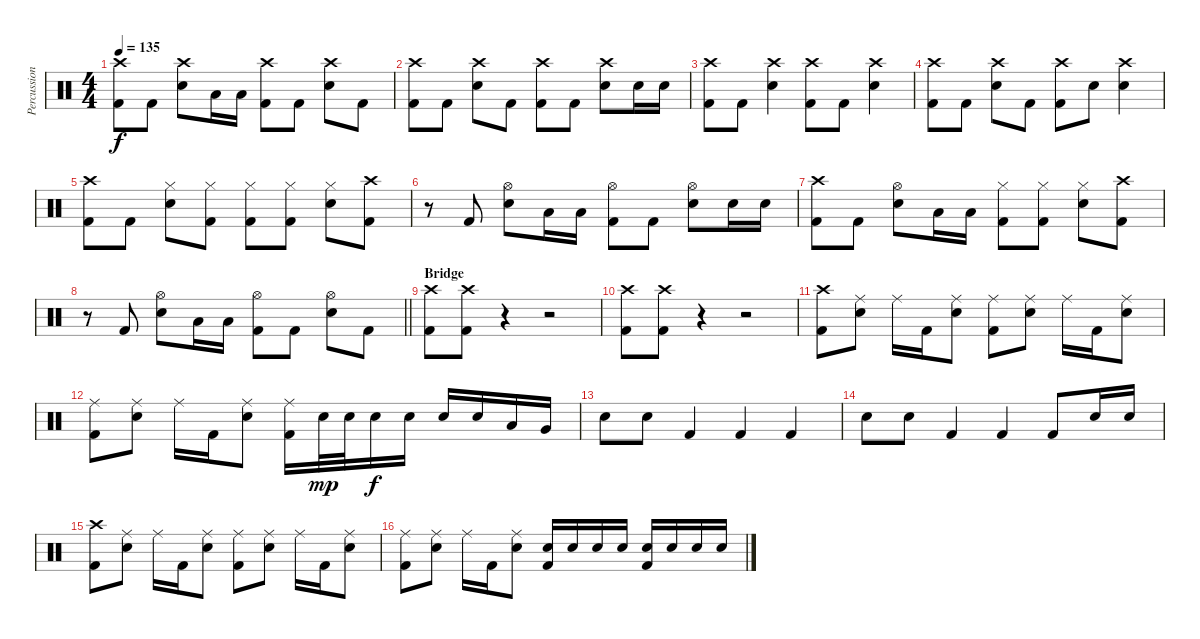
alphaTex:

\track ("Percussion" "Percussion") {instrument percussion}
\staff {score}
\articulation defaults
\ts (4 4)
\tempo 135
\clef neutral
\ks c
("Kick (hit) 2" "Crash high (hit)").8{dy f} "Kick (hit) 2".8 ("Snare (hit) 2" "Crash high (hit)").8 "Low Floor Tom (hit)".16 "Low Floor Tom (hit)".16 ("Kick (hit) 2" "Crash high (hit)").8 "Kick (hit) 2".8 ("Snare (hit) 2" "Crash high (hit)").8 "Kick (hit) 2".8 |
("Kick (hit) 2" "Crash high (hit)").8 "Kick (hit) 2".8 ("Snare (hit) 2" "Crash high (hit)").8 "Kick (hit) 2".8 ("Kick (hit) 2" "Crash high (hit)").8 "Kick (hit) 2".8 ("Snare (hit) 2" "Crash high (hit)").8 "Snare (hit) 2".16 "Snare (hit) 2".16 |
("Kick (hit) 2" "Crash high (hit)").8 "Kick (hit) 2".8 ("Snare (hit) 2" "Crash high (hit)").4 ("Kick (hit) 2" "Crash high (hit)").8 "Kick (hit) 2".8 ("Snare (hit) 2" "Crash high (hit)").4 |
("Kick (hit) 2" "Crash high (hit)").8 "Kick (hit) 2".8 ("Snare (hit) 2" "Crash high (hit)").8 "Kick (hit) 2".8 ("Kick (hit) 2" "Crash high (hit)").8 "Snare (hit) 2".8 ("Snare (hit) 2" "Crash high (hit)").4 |
("Kick (hit) 2" "Crash high (hit)").8 "Kick (hit) 2".8 ("Snare (hit) 2" "Hi-Hat (closed)").8 ("Kick (hit) 2" "Hi-Hat (closed)").8 ("Kick (hit) 2" "Hi-Hat (closed)").8 ("Kick (hit) 2" "Hi-Hat (closed)").8 ("Snare (hit) 2" "Hi-Hat (closed)").8 ("Kick (hit) 2" "Crash high (hit)").8 |
r.8 "Kick (hit) 2".8 ("Snare (hit) 2" "Hi-Hat (open)").8 "Low Floor Tom (hit)".16 "Low Floor Tom (hit)".16 ("Kick (hit) 2" "Hi-Hat (open)").8 "Kick (hit) 2".8 ("Snare (hit) 2" "Hi-Hat (open)").8 "Snare (hit) 2".16 "Snare (hit) 2".16 |
("Kick (hit) 2" "Crash high (hit)").8 "Kick (hit) 2".8 ("Snare (hit) 2" "Hi-Hat (open)").8 "Low Floor Tom (hit)".16 "Low Floor Tom (hit)".16 ("Kick (hit) 2" "Hi-Hat (closed)").8 ("Kick (hit) 2" "Hi-Hat (closed)").8 ("Snare (hit) 2" "Hi-Hat (closed)").8 ("Kick (hit) 2" "Crash high (hit)").8 |
\barLineRight lightlight
r.8 "Kick (hit) 2".8 ("Snare (hit) 2" "Hi-Hat (open)").8 "Low Floor Tom (hit)".16 "Low Floor Tom (hit)".16 ("Kick (hit) 2" "Hi-Hat (open)").8 "Kick (hit) 2".8 ("Snare (hit) 2" "Hi-Hat (open)").8 "Kick (hit) 2".8 |
\section ("" "Bridge")
("Crash high (hit)" "Kick (hit) 2").8 ("Crash high (hit)" "Kick (hit) 2").8 r.4 r.2 |
("Crash high (hit)" "Kick (hit) 2").8 ("Crash high (hit)" "Kick (hit) 2").8 r.4 r.2 |
("Crash high (hit)" "Kick (hit) 2").8 ("Snare (hit) 2" "Ride (middle)").8 "Ride (middle)".16 "Kick (hit) 2".16 ("Snare (hit) 2" "Ride (middle)").8 ("Ride (middle)" "Kick (hit) 2").8 ("Snare (hit) 2" "Ride (middle)").8 "Ride (middle)".16 "Kick (hit) 2".16 ("Snare (hit) 2" "Ride (middle)").8 |
("Ride (middle)" "Kick (hit) 2").8 ("Snare (hit) 2" "Ride (middle)").8 "Ride (middle)".16 "Kick (hit) 2".16 ("Snare (hit) 2" "Ride (middle)").8 ("Ride (middle)" "Kick (hit) 2").16 "Snare (hit) 2".32{dy mp} "Snare (hit) 2".32 "Snare (hit) 2".16{dy f} "Snare (hit) 2".16 "Snare (hit) 2".16 "Snare (hit) 2".16 "Low Tom (hit)".16 "Very Low Tom (hit)".16 |
"Snare (hit) 2".8 "Snare (hit) 2".8 "Kick (hit) 2".4 "Kick (hit) 2".4 "Kick (hit) 2".4 |
"Snare (hit) 2".8 "Snare (hit) 2".8 "Kick (hit) 2".4 "Kick (hit) 2".4 "Kick (hit) 2".8 "Snare (hit) 2".16 "Snare (hit) 2".16 |
("Crash high (hit)" "Kick (hit) 2").8 ("Snare (hit) 2" "Ride (middle)").8 "Ride (middle)".16 "Kick (hit) 2".16 ("Snare (hit) 2" "Ride (middle)").8 ("Ride (middle)" "Kick (hit) 2").8 ("Snare (hit) 2" "Ride (middle)").8 "Ride (middle)".16 "Kick (hit) 2".16 ("Snare (hit) 2" "Ride (middle)").8 |
("Ride (middle)" "Kick (hit) 2").8 ("Snare (hit) 2" "Ride (middle)").8 "Ride (middle)".16 "Kick (hit) 2".16 ("Snare (hit) 2" "Ride (middle)").8 ("Snare (hit) 2" "Kick (hit) 2").16 "Snare (hit) 2".16 "Snare (hit) 2".16 "Snare (hit) 2".16 ("Snare (hit) 2" "Kick (hit) 2").16 "Snare (hit) 2".16 "Snare (hit) 2".16 "Snare (hit) 2".16
